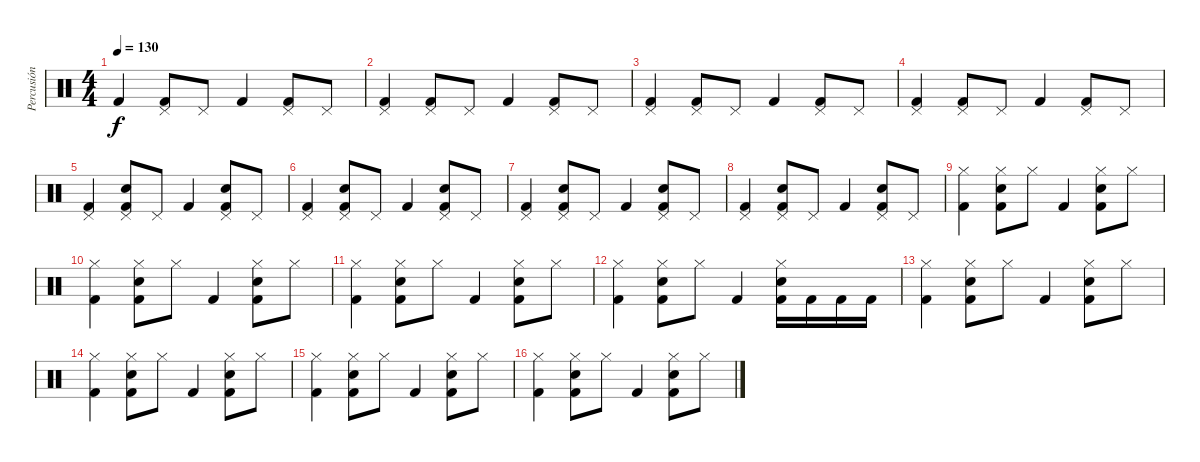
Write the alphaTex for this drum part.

\track ("Percusión" "Percusión") {instrument percussion}
\staff {score}
\articulation defaults
\ts (4 4)
\tempo 130
\clef neutral
\ks c "Kick (hit) 2".4{dy f}
("Pedal Hi-Hat (hit)" "Kick (hit) 2").8 "Pedal Hi-Hat (hit)".8 "Kick (hit) 2".4 ("Pedal Hi-Hat (hit)" "Kick (hit) 2").8 "Pedal Hi-Hat (hit)".8 |
("Pedal Hi-Hat (hit)" "Kick (hit) 2").4 ("Pedal Hi-Hat (hit)" "Kick (hit) 2").8 "Pedal Hi-Hat (hit)".8 "Kick (hit) 2".4 ("Pedal Hi-Hat (hit)" "Kick (hit) 2").8 "Pedal Hi-Hat (hit)".8 |
("Pedal Hi-Hat (hit)" "Kick (hit) 2").4 ("Pedal Hi-Hat (hit)" "Kick (hit) 2").8 "Pedal Hi-Hat (hit)".8 "Kick (hit) 2".4 ("Pedal Hi-Hat (hit)" "Kick (hit) 2").8 "Pedal Hi-Hat (hit)".8 |
("Pedal Hi-Hat (hit)" "Kick (hit) 2").4 ("Pedal Hi-Hat (hit)" "Kick (hit) 2").8 "Pedal Hi-Hat (hit)".8 "Kick (hit) 2".4 ("Pedal Hi-Hat (hit)" "Kick (hit) 2").8 "Pedal Hi-Hat (hit)".8 |
("Pedal Hi-Hat (hit)" "Kick (hit) 2").4 ("Pedal Hi-Hat (hit)" "Snare (hit) 2" "Kick (hit) 2").8 "Pedal Hi-Hat (hit)".8 "Kick (hit) 2".4 ("Pedal Hi-Hat (hit)" "Snare (hit) 2" "Kick (hit) 2").8 "Pedal Hi-Hat (hit)".8 |
("Pedal Hi-Hat (hit)" "Kick (hit) 2").4 ("Pedal Hi-Hat (hit)" "Snare (hit) 2" "Kick (hit) 2").8 "Pedal Hi-Hat (hit)".8 "Kick (hit) 2".4 ("Pedal Hi-Hat (hit)" "Snare (hit) 2" "Kick (hit) 2").8 "Pedal Hi-Hat (hit)".8 |
("Pedal Hi-Hat (hit)" "Kick (hit) 2").4 ("Pedal Hi-Hat (hit)" "Snare (hit) 2" "Kick (hit) 2").8 "Pedal Hi-Hat (hit)".8 "Kick (hit) 2".4 ("Pedal Hi-Hat (hit)" "Snare (hit) 2" "Kick (hit) 2").8 "Pedal Hi-Hat (hit)".8 |
("Pedal Hi-Hat (hit)" "Kick (hit) 2").4 ("Pedal Hi-Hat (hit)" "Snare (hit) 2" "Kick (hit) 2").8 "Pedal Hi-Hat (hit)".8 "Kick (hit) 2".4 ("Pedal Hi-Hat (hit)" "Snare (hit) 2" "Kick (hit) 2").8 "Pedal Hi-Hat (hit)".8 |
("Hi-Hat (closed)" "Kick (hit) 2").4 ("Hi-Hat (closed)" "Snare (hit) 2" "Kick (hit) 2").8 "Hi-Hat (closed)".8 "Kick (hit) 2".4 ("Hi-Hat (closed)" "Snare (hit) 2" "Kick (hit) 2").8 "Hi-Hat (closed)".8 |
("Hi-Hat (closed)" "Kick (hit) 2").4 ("Hi-Hat (closed)" "Snare (hit) 2" "Kick (hit) 2").8 "Hi-Hat (closed)".8 "Kick (hit) 2".4 ("Hi-Hat (closed)" "Snare (hit) 2" "Kick (hit) 2").8 "Hi-Hat (closed)".8 |
("Hi-Hat (closed)" "Kick (hit) 2").4 ("Hi-Hat (closed)" "Snare (hit) 2" "Kick (hit) 2").8 "Hi-Hat (closed)".8 "Kick (hit) 2".4 ("Hi-Hat (closed)" "Snare (hit) 2" "Kick (hit) 2").8 "Hi-Hat (closed)".8 |
("Hi-Hat (closed)" "Kick (hit) 2").4 ("Hi-Hat (closed)" "Snare (hit) 2" "Kick (hit) 2").8 "Hi-Hat (closed)".8 "Kick (hit) 2".4 ("Hi-Hat (closed)" "Snare (hit) 2" "Kick (hit) 2").16 "Kick (hit) 2".16 "Kick (hit) 2".16 "Kick (hit) 2".16 |
("Hi-Hat (closed)" "Kick (hit) 2").4 ("Hi-Hat (closed)" "Snare (hit) 2" "Kick (hit) 2").8 "Hi-Hat (closed)".8 "Kick (hit) 2".4 ("Hi-Hat (closed)" "Snare (hit) 2" "Kick (hit) 2").8 "Hi-Hat (closed)".8 |
("Hi-Hat (closed)" "Kick (hit) 2").4 ("Hi-Hat (closed)" "Snare (hit) 2" "Kick (hit) 2").8 "Hi-Hat (closed)".8 "Kick (hit) 2".4 ("Hi-Hat (closed)" "Snare (hit) 2" "Kick (hit) 2").8 "Hi-Hat (closed)".8 |
("Hi-Hat (closed)" "Kick (hit) 2").4 ("Hi-Hat (closed)" "Snare (hit) 2" "Kick (hit) 2").8 "Hi-Hat (closed)".8 "Kick (hit) 2".4 ("Hi-Hat (closed)" "Snare (hit) 2" "Kick (hit) 2").8 "Hi-Hat (closed)".8 |
("Hi-Hat (closed)" "Kick (hit) 2").4 ("Hi-Hat (closed)" "Snare (hit) 2" "Kick (hit) 2").8 "Hi-Hat (closed)".8 "Kick (hit) 2".4 ("Hi-Hat (closed)" "Snare (hit) 2" "Kick (hit) 2").8 "Hi-Hat (closed)".8
